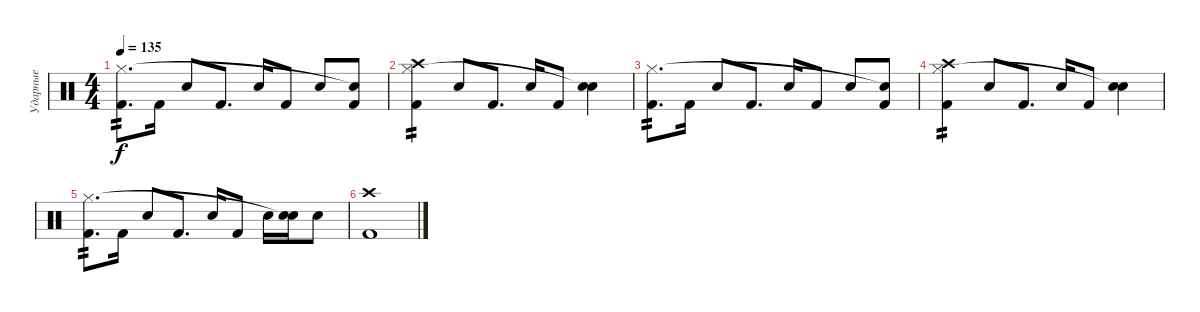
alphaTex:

\track ("Ударные" "Ударные") {instrument percussion}
\staff {score}
\articulation defaults
\ts (4 4)
\tempo 135
\clef neutral
\ks c
("Kick (hit) 2" "Hi-Hat (closed)").8{d tp 2 dy f} "Kick (hit) 2".16 "Electric Snare (hit)".8 "Kick (hit) 2".8{d} "Electric Snare (hit)".16 "Kick (hit) 2".8 "Electric Snare (hit)".8 ("Kick (hit) 2" "Snare (hit)"{t}).8 |
("Kick (hit) 2" "Hi-Hat (closed)" "Crash high (hit)").4{tp 2} "Electric Snare (hit)".8 "Kick (hit) 2".8{d} "Electric Snare (hit)".16 "Kick (hit) 2".8 ("Electric Snare (hit)" "Snare (hit)"{t}).4 |
("Kick (hit) 2" "Hi-Hat (closed)").8{d tp 2} "Kick (hit) 2".16 "Electric Snare (hit)".8 "Kick (hit) 2".8{d} "Electric Snare (hit)".16 "Kick (hit) 2".8 "Electric Snare (hit)".8 ("Kick (hit) 2" "Snare (hit)"{t}).8 |
("Kick (hit) 2" "Hi-Hat (closed)" "Crash high (hit)").4{tp 2} "Electric Snare (hit)".8 "Kick (hit) 2".8{d} "Electric Snare (hit)".16 "Kick (hit) 2".8 ("Electric Snare (hit)" "Snare (hit)"{t}).4 |
("Kick (hit) 2" "Hi-Hat (closed)").8{d tp 2} "Kick (hit) 2".16 "Electric Snare (hit)".8 "Kick (hit) 2".8{d} "Electric Snare (hit)".16 "Kick (hit) 2".8 "Electric Snare (hit)".16 ("Electric Snare (hit)" "Snare (hit)"{t}).16 "Electric Snare (hit)".8 |
("Kick (hit) 2" "Crash high (hit)").1
